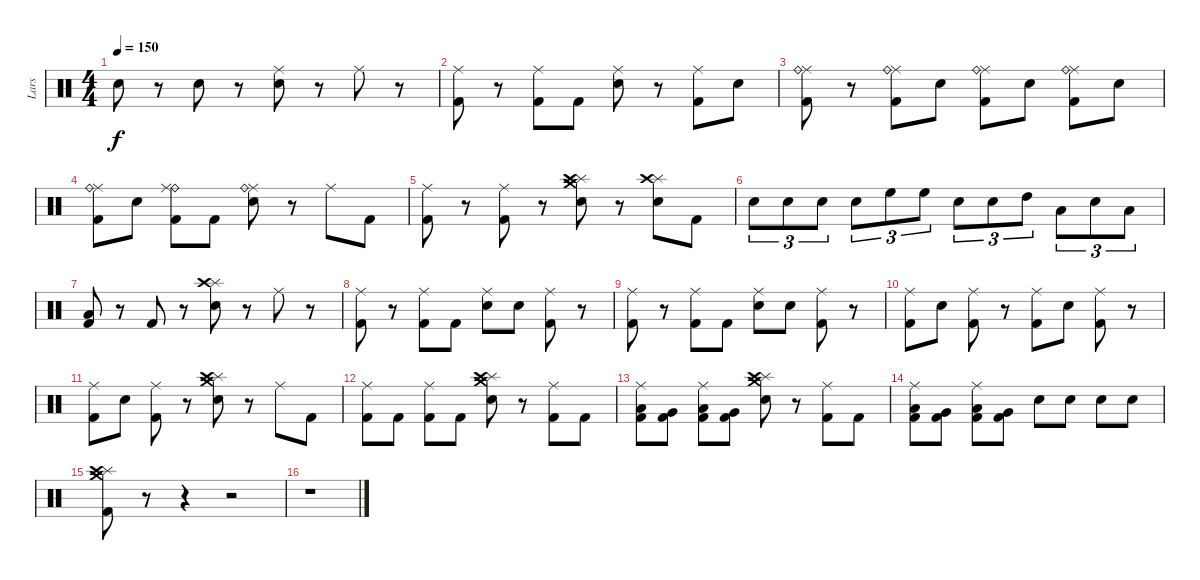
\track ("Lars" "Lars") {instrument percussion}
\staff {score}
\articulation defaults
\ts (4 4)
\tempo 150
\clef neutral
\ks c "Snare (hit) 2".8{dy f}
r.8 "Snare (hit) 2".8 r.8 ("Ride (middle)" "Snare (hit) 2").8 r.8 "Ride (middle)".8 r.8 |
("Ride (middle)" "Kick (hit) 2").8 r.8 ("Ride (middle)" "Kick (hit) 2").8 "Kick (hit) 2".8 ("Ride (middle)" "Snare (hit) 2").8 r.8 ("Ride (middle)" "Kick (hit) 2").8 "Snare (hit) 2".8 |
("Ride (middle)" "Ride (bell)" "Kick (hit) 2").8 r.8 ("Kick (hit) 2" "Ride (middle)" "Ride (bell)").8 "Snare (hit) 2".8 ("Kick (hit) 2" "Ride (middle)" "Ride (bell)").8 "Snare (hit) 2".8 ("Kick (hit) 2" "Ride (middle)" "Ride (bell)").8 "Snare (hit) 2".8 |
("Kick (hit) 2" "Ride (middle)" "Ride (bell)").8 "Snare (hit) 2".8 ("Kick (hit) 2" "Ride (bell)" "Ride (middle)").8 "Kick (hit) 2".8 ("Snare (hit) 2" "Ride (middle)" "Ride (bell)").8 r.8 "Ride (middle)".8 "Kick (hit) 2".8 |
("Ride (middle)" "Kick (hit) 2").8 r.8 ("Ride (middle)" "Kick (hit) 2").8 r.8 ("Crash medium (hit)" "Splash (hit)" "Crash high (hit)" "Snare (hit) 2").8 r.8 ("Splash (hit)" "Crash high (hit)" "Snare (hit) 2").8 "Kick (hit) 2".8 |
"Snare (hit) 2".8{tu (3 2)} "Snare (hit) 2".8{tu (3 2)} "Snare (hit) 2".8{tu (3 2)} "Snare (hit) 2".8{tu (3 2)} "High Floor Tom (hit)".8{tu (3 2)} "High Floor Tom (hit)".8{tu (3 2)} "Snare (hit) 2".8{tu (3 2)} "Snare (hit) 2".8{tu (3 2)} "High Tom (hit)".8{tu (3 2)} "Low Tom (hit)".8{tu (3 2)} "Snare (hit) 2".8{tu (3 2)} "Low Floor Tom (hit)".8{tu (3 2)} |
("Low Floor Tom (hit)" "Kick (hit) 2").8 r.8 "Kick (hit) 2".8 r.8 ("Splash (hit)" "Crash high (hit)" "Snare (hit) 2").8 r.8 "Ride (middle)".8 r.8 |
("Ride (middle)" "Kick (hit) 2").8 r.8 ("Ride (middle)" "Kick (hit) 2").8 "Kick (hit) 2".8 ("Ride (middle)" "Snare (hit) 2").8 "Snare (hit) 2".8 ("Ride (middle)" "Kick (hit) 2").8 r.8 |
("Ride (middle)" "Kick (hit) 2").8 r.8 ("Ride (middle)" "Kick (hit) 2").8 "Kick (hit) 2".8 ("Ride (middle)" "Snare (hit) 2").8 "Snare (hit) 2".8 ("Ride (middle)" "Kick (hit) 2").8 r.8 |
("Ride (middle)" "Kick (hit) 2").8 "Snare (hit) 2".8 ("Ride (middle)" "Kick (hit) 2").8 r.8 ("Ride (middle)" "Kick (hit) 2").8 "Snare (hit) 2".8 ("Ride (middle)" "Kick (hit) 2").8 r.8 |
("Ride (middle)" "Kick (hit) 2").8 "Snare (hit) 2".8 ("Ride (middle)" "Kick (hit) 2").8 r.8 ("Splash (hit)" "Crash medium (hit)" "Crash high (hit)" "Snare (hit) 2").8 r.8 "Ride (middle)".8 "Kick (hit) 2".8 |
("Ride (middle)" "Kick (hit) 2").8 "Kick (hit) 2".8 ("Ride (middle)" "Kick (hit) 2").8 "Kick (hit) 2".8 ("Crash medium (hit)" "Splash (hit)" "Crash high (hit)" "Snare (hit) 2").8 r.8 ("Kick (hit) 2" "Ride (middle)").8 "Kick (hit) 2".8 |
("Low Floor Tom (hit)" "Ride (middle)" "Kick (hit) 2").8 ("Very Low Tom (hit)" "Kick (hit) 2").8 ("Low Floor Tom (hit)" "Ride (middle)" "Kick (hit) 2").8 ("Very Low Tom (hit)" "Kick (hit) 2").8 ("Crash medium (hit)" "Splash (hit)" "Crash high (hit)" "Snare (hit) 2").8 r.8 ("Kick (hit) 2" "Ride (middle)").8 "Kick (hit) 2".8 |
("Low Floor Tom (hit)" "Ride (middle)" "Kick (hit) 2").8 ("Very Low Tom (hit)" "Kick (hit) 2").8 ("Low Floor Tom (hit)" "Ride (middle)" "Kick (hit) 2").8 ("Very Low Tom (hit)" "Kick (hit) 2").8 "Snare (hit) 2".8 "Snare (hit) 2".8 "Snare (hit) 2".8 "Snare (hit) 2".8 |
("Crash medium (hit)" "Splash (hit)" "Crash high (hit)" "Kick (hit) 2").8 r.8 r.4 r.2 |
r.1
